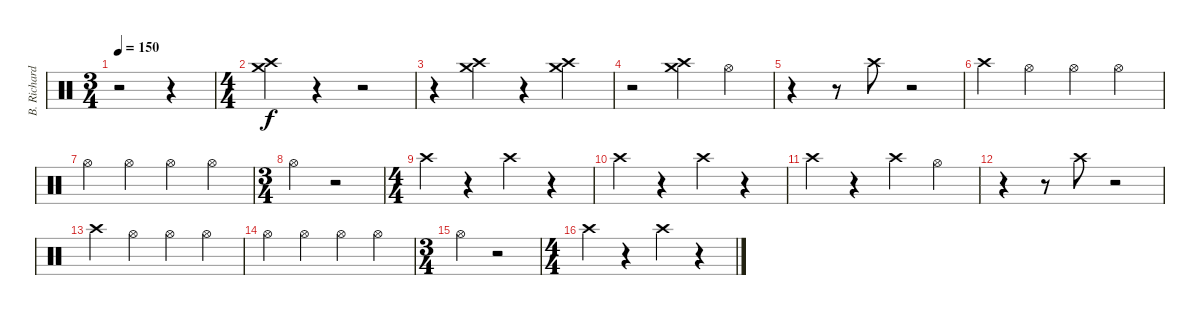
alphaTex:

\track ("B. Richardson Drums" "B. Richard") {instrument percussion}
\staff {score}
\articulation defaults
\ts (3 4)
\tempo 150
\clef neutral
\ks c
r.2{dy mf} r.4 |
\ts (4 4)
("Crash high (hit)" "Crash medium (hit)").4{dy f} r.4 r.2 |
r.4 ("Crash high (hit)" "Crash medium (hit)").4 r.4 ("Crash high (hit)" "Crash medium (hit)").4 |
r.2 ("Crash high (hit)" "Crash medium (hit)").4 "Hi-Hat (open)".4 |
r.4 r.8 "Crash high (hit)".8 r.2 |
"Crash high (hit)".4 "Hi-Hat (open)".4 "Hi-Hat (open)".4 "Hi-Hat (open)".4 |
"Hi-Hat (open)".4 "Hi-Hat (open)".4 "Hi-Hat (open)".4 "Hi-Hat (open)".4 |
\ts (3 4)
"Hi-Hat (open)".4 r.2 |
\ts (4 4)
"Crash high (hit)".4 r.4 "Crash high (hit)".4 r.4 |
"Crash high (hit)".4 r.4 "Crash high (hit)".4 r.4 |
"Crash high (hit)".4 r.4 "Crash high (hit)".4 "Hi-Hat (open)".4 |
r.4 r.8 "Crash high (hit)".8 r.2 |
"Crash high (hit)".4 "Hi-Hat (open)".4 "Hi-Hat (open)".4 "Hi-Hat (open)".4 |
"Hi-Hat (open)".4 "Hi-Hat (open)".4 "Hi-Hat (open)".4 "Hi-Hat (open)".4 |
\ts (3 4)
"Hi-Hat (open)".4 r.2 |
\ts (4 4)
"Crash high (hit)".4 r.4 "Crash high (hit)".4 r.4
